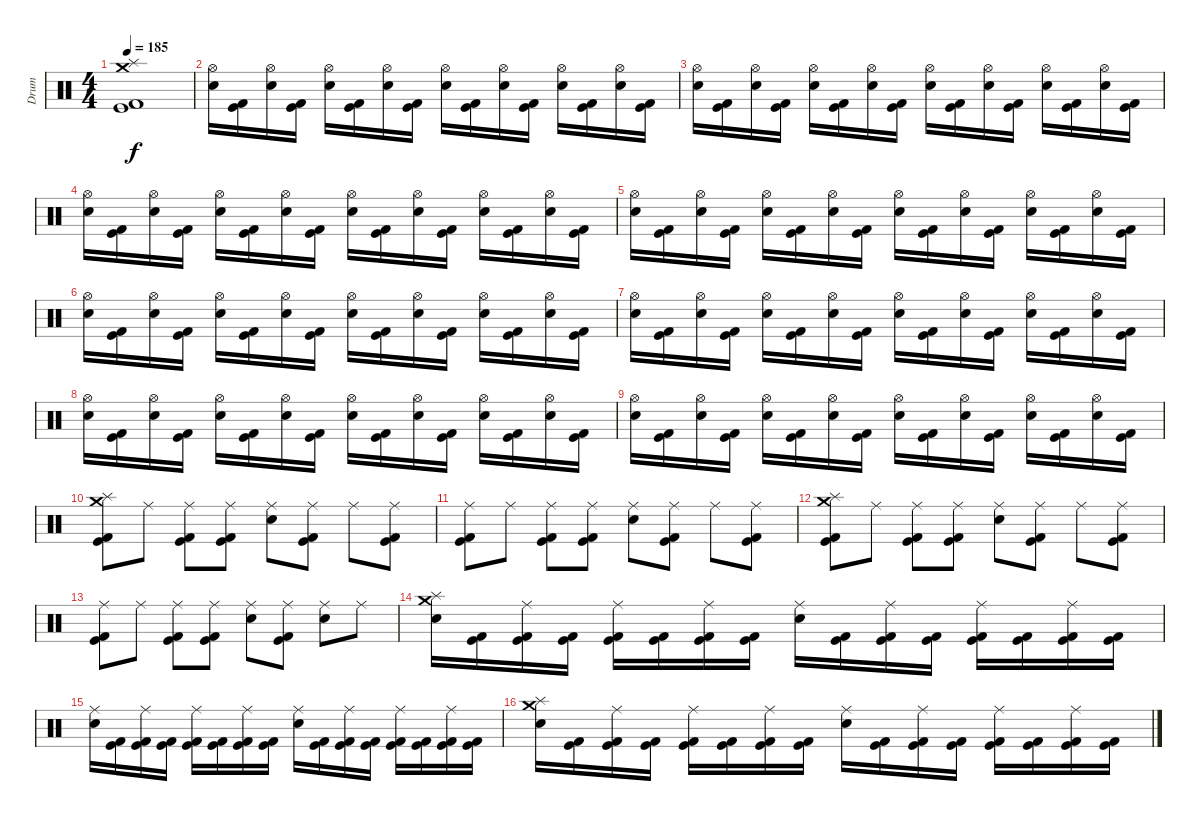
\track ("Drum" "Drum") {instrument percussion}
\staff {score}
\articulation defaults
\ts (4 4)
\tempo 185
\clef neutral
\ks c
("Crash medium (hit)" "Splash (hit)" "Kick (hit)" "Kick (hit) 2").1{dy f} |
("Hi-Hat (open)" "Snare (hit) 2").16 ("Kick (hit)" "Kick (hit) 2").16 ("Hi-Hat (open)" "Snare (hit) 2").16 ("Kick (hit)" "Kick (hit) 2").16 ("Hi-Hat (open)" "Snare (hit) 2").16 ("Kick (hit)" "Kick (hit) 2").16 ("Hi-Hat (open)" "Snare (hit) 2").16 ("Kick (hit)" "Kick (hit) 2").16 ("Hi-Hat (open)" "Snare (hit) 2").16 ("Kick (hit)" "Kick (hit) 2").16 ("Hi-Hat (open)" "Snare (hit) 2").16 ("Kick (hit)" "Kick (hit) 2").16 ("Hi-Hat (open)" "Snare (hit) 2").16 ("Kick (hit)" "Kick (hit) 2").16 ("Hi-Hat (open)" "Snare (hit) 2").16 ("Kick (hit)" "Kick (hit) 2").16 |
("Hi-Hat (open)" "Snare (hit) 2").16 ("Kick (hit)" "Kick (hit) 2").16 ("Hi-Hat (open)" "Snare (hit) 2").16 ("Kick (hit)" "Kick (hit) 2").16 ("Hi-Hat (open)" "Snare (hit) 2").16 ("Kick (hit)" "Kick (hit) 2").16 ("Hi-Hat (open)" "Snare (hit) 2").16 ("Kick (hit)" "Kick (hit) 2").16 ("Hi-Hat (open)" "Snare (hit) 2").16 ("Kick (hit)" "Kick (hit) 2").16 ("Hi-Hat (open)" "Snare (hit) 2").16 ("Kick (hit)" "Kick (hit) 2").16 ("Hi-Hat (open)" "Snare (hit) 2").16 ("Kick (hit)" "Kick (hit) 2").16 ("Hi-Hat (open)" "Snare (hit) 2").16 ("Kick (hit)" "Kick (hit) 2").16 |
("Hi-Hat (open)" "Snare (hit) 2").16 ("Kick (hit)" "Kick (hit) 2").16 ("Hi-Hat (open)" "Snare (hit) 2").16 ("Kick (hit)" "Kick (hit) 2").16 ("Hi-Hat (open)" "Snare (hit) 2").16 ("Kick (hit)" "Kick (hit) 2").16 ("Hi-Hat (open)" "Snare (hit) 2").16 ("Kick (hit)" "Kick (hit) 2").16 ("Hi-Hat (open)" "Snare (hit) 2").16 ("Kick (hit)" "Kick (hit) 2").16 ("Hi-Hat (open)" "Snare (hit) 2").16 ("Kick (hit)" "Kick (hit) 2").16 ("Hi-Hat (open)" "Snare (hit) 2").16 ("Kick (hit)" "Kick (hit) 2").16 ("Hi-Hat (open)" "Snare (hit) 2").16 ("Kick (hit)" "Kick (hit) 2").16 |
("Hi-Hat (open)" "Snare (hit) 2").16 ("Kick (hit)" "Kick (hit) 2").16 ("Hi-Hat (open)" "Snare (hit) 2").16 ("Kick (hit)" "Kick (hit) 2").16 ("Hi-Hat (open)" "Snare (hit) 2").16 ("Kick (hit)" "Kick (hit) 2").16 ("Hi-Hat (open)" "Snare (hit) 2").16 ("Kick (hit)" "Kick (hit) 2").16 ("Hi-Hat (open)" "Snare (hit) 2").16 ("Kick (hit)" "Kick (hit) 2").16 ("Hi-Hat (open)" "Snare (hit) 2").16 ("Kick (hit)" "Kick (hit) 2").16 ("Hi-Hat (open)" "Snare (hit) 2").16 ("Kick (hit)" "Kick (hit) 2").16 ("Hi-Hat (open)" "Snare (hit) 2").16 ("Kick (hit)" "Kick (hit) 2").16 |
("Hi-Hat (open)" "Snare (hit) 2").16 ("Kick (hit)" "Kick (hit) 2").16 ("Hi-Hat (open)" "Snare (hit) 2").16 ("Kick (hit)" "Kick (hit) 2").16 ("Hi-Hat (open)" "Snare (hit) 2").16 ("Kick (hit)" "Kick (hit) 2").16 ("Hi-Hat (open)" "Snare (hit) 2").16 ("Kick (hit)" "Kick (hit) 2").16 ("Hi-Hat (open)" "Snare (hit) 2").16 ("Kick (hit)" "Kick (hit) 2").16 ("Hi-Hat (open)" "Snare (hit) 2").16 ("Kick (hit)" "Kick (hit) 2").16 ("Hi-Hat (open)" "Snare (hit) 2").16 ("Kick (hit)" "Kick (hit) 2").16 ("Hi-Hat (open)" "Snare (hit) 2").16 ("Kick (hit)" "Kick (hit) 2").16 |
("Hi-Hat (open)" "Snare (hit) 2").16 ("Kick (hit)" "Kick (hit) 2").16 ("Hi-Hat (open)" "Snare (hit) 2").16 ("Kick (hit)" "Kick (hit) 2").16 ("Hi-Hat (open)" "Snare (hit) 2").16 ("Kick (hit)" "Kick (hit) 2").16 ("Hi-Hat (open)" "Snare (hit) 2").16 ("Kick (hit)" "Kick (hit) 2").16 ("Hi-Hat (open)" "Snare (hit) 2").16 ("Kick (hit)" "Kick (hit) 2").16 ("Hi-Hat (open)" "Snare (hit) 2").16 ("Kick (hit)" "Kick (hit) 2").16 ("Hi-Hat (open)" "Snare (hit) 2").16 ("Kick (hit)" "Kick (hit) 2").16 ("Hi-Hat (open)" "Snare (hit) 2").16 ("Kick (hit)" "Kick (hit) 2").16 |
("Hi-Hat (open)" "Snare (hit) 2").16 ("Kick (hit)" "Kick (hit) 2").16 ("Hi-Hat (open)" "Snare (hit) 2").16 ("Kick (hit)" "Kick (hit) 2").16 ("Hi-Hat (open)" "Snare (hit) 2").16 ("Kick (hit)" "Kick (hit) 2").16 ("Hi-Hat (open)" "Snare (hit) 2").16 ("Kick (hit)" "Kick (hit) 2").16 ("Hi-Hat (open)" "Snare (hit) 2").16 ("Kick (hit)" "Kick (hit) 2").16 ("Hi-Hat (open)" "Snare (hit) 2").16 ("Kick (hit)" "Kick (hit) 2").16 ("Hi-Hat (open)" "Snare (hit) 2").16 ("Kick (hit)" "Kick (hit) 2").16 ("Hi-Hat (open)" "Snare (hit) 2").16 ("Kick (hit)" "Kick (hit) 2").16 |
("Hi-Hat (open)" "Snare (hit) 2").16 ("Kick (hit)" "Kick (hit) 2").16 ("Hi-Hat (open)" "Snare (hit) 2").16 ("Kick (hit)" "Kick (hit) 2").16 ("Hi-Hat (open)" "Snare (hit) 2").16 ("Kick (hit)" "Kick (hit) 2").16 ("Hi-Hat (open)" "Snare (hit) 2").16 ("Kick (hit)" "Kick (hit) 2").16 ("Hi-Hat (open)" "Snare (hit) 2").16 ("Kick (hit)" "Kick (hit) 2").16 ("Hi-Hat (open)" "Snare (hit) 2").16 ("Kick (hit)" "Kick (hit) 2").16 ("Hi-Hat (open)" "Snare (hit) 2").16 ("Kick (hit)" "Kick (hit) 2").16 ("Hi-Hat (open)" "Snare (hit) 2").16 ("Kick (hit)" "Kick (hit) 2").16 |
("Splash (hit)" "Crash medium (hit)" "Kick (hit)" "Kick (hit) 2").8 "Ride (middle)".8 ("Ride (middle)" "Kick (hit)" "Kick (hit) 2").8 ("Ride (middle)" "Kick (hit)" "Kick (hit) 2").8 ("Ride (middle)" "Snare (hit) 2").8 ("Ride (middle)" "Kick (hit)" "Kick (hit) 2").8 "Ride (middle)".8 ("Ride (middle)" "Kick (hit)" "Kick (hit) 2").8 |
("Ride (middle)" "Kick (hit)" "Kick (hit) 2").8 "Ride (middle)".8 ("Ride (middle)" "Kick (hit)" "Kick (hit) 2").8 ("Ride (middle)" "Kick (hit)" "Kick (hit) 2").8 ("Ride (middle)" "Snare (hit) 2").8 ("Ride (middle)" "Kick (hit)" "Kick (hit) 2").8 "Ride (middle)".8 ("Ride (middle)" "Kick (hit)" "Kick (hit) 2").8 |
("Splash (hit)" "Crash medium (hit)" "Kick (hit)" "Kick (hit) 2").8 "Ride (middle)".8 ("Ride (middle)" "Kick (hit)" "Kick (hit) 2").8 ("Ride (middle)" "Kick (hit)" "Kick (hit) 2").8 ("Ride (middle)" "Snare (hit) 2").8 ("Ride (middle)" "Kick (hit)" "Kick (hit) 2").8 "Ride (middle)".8 ("Ride (middle)" "Kick (hit)" "Kick (hit) 2").8 |
("Ride (middle)" "Kick (hit)" "Kick (hit) 2").8 "Ride (middle)".8 ("Ride (middle)" "Kick (hit)" "Kick (hit) 2").8 ("Ride (middle)" "Kick (hit)" "Kick (hit) 2").8 ("Ride (middle)" "Snare (hit) 2").8 ("Ride (middle)" "Kick (hit)" "Kick (hit) 2").8 ("Ride (middle)" "Snare (hit) 2").8 "Ride (middle)".8 |
("Splash (hit)" "Crash medium (hit)" "Snare (hit) 2").16 ("Kick (hit)" "Kick (hit) 2").16 ("Ride (middle)" "Kick (hit)" "Kick (hit) 2").16 ("Kick (hit)" "Kick (hit) 2").16 ("Ride (middle)" "Kick (hit)" "Kick (hit) 2").16 ("Kick (hit)" "Kick (hit) 2").16 ("Ride (middle)" "Kick (hit)" "Kick (hit) 2").16 ("Kick (hit)" "Kick (hit) 2").16 ("Ride (middle)" "Snare (hit) 2").16 ("Kick (hit)" "Kick (hit) 2").16 ("Ride (middle)" "Kick (hit)" "Kick (hit) 2").16 ("Kick (hit)" "Kick (hit) 2").16 ("Ride (middle)" "Kick (hit)" "Kick (hit) 2").16 ("Kick (hit)" "Kick (hit) 2").16 ("Ride (middle)" "Kick (hit)" "Kick (hit) 2").16 ("Kick (hit)" "Kick (hit) 2").16 |
("Ride (middle)" "Snare (hit) 2").16 ("Kick (hit)" "Kick (hit) 2").16 ("Ride (middle)" "Kick (hit)" "Kick (hit) 2").16 ("Kick (hit)" "Kick (hit) 2").16 ("Ride (middle)" "Kick (hit)" "Kick (hit) 2").16 ("Kick (hit)" "Kick (hit) 2").16 ("Ride (middle)" "Kick (hit)" "Kick (hit) 2").16 ("Kick (hit)" "Kick (hit) 2").16 ("Ride (middle)" "Snare (hit) 2").16 ("Kick (hit)" "Kick (hit) 2").16 ("Ride (middle)" "Kick (hit)" "Kick (hit) 2").16 ("Kick (hit)" "Kick (hit) 2").16 ("Ride (middle)" "Kick (hit)" "Kick (hit) 2").16 ("Kick (hit)" "Kick (hit) 2").16 ("Ride (middle)" "Kick (hit)" "Kick (hit) 2").16 ("Kick (hit)" "Kick (hit) 2").16 |
("Splash (hit)" "Crash medium (hit)" "Snare (hit) 2").16 ("Kick (hit)" "Kick (hit) 2").16 ("Ride (middle)" "Kick (hit)" "Kick (hit) 2").16 ("Kick (hit)" "Kick (hit) 2").16 ("Ride (middle)" "Kick (hit)" "Kick (hit) 2").16 ("Kick (hit)" "Kick (hit) 2").16 ("Ride (middle)" "Kick (hit)" "Kick (hit) 2").16 ("Kick (hit)" "Kick (hit) 2").16 ("Ride (middle)" "Snare (hit) 2").16 ("Kick (hit)" "Kick (hit) 2").16 ("Ride (middle)" "Kick (hit)" "Kick (hit) 2").16 ("Kick (hit)" "Kick (hit) 2").16 ("Ride (middle)" "Kick (hit)" "Kick (hit) 2").16 ("Kick (hit)" "Kick (hit) 2").16 ("Ride (middle)" "Kick (hit)" "Kick (hit) 2").16 ("Kick (hit)" "Kick (hit) 2").16
